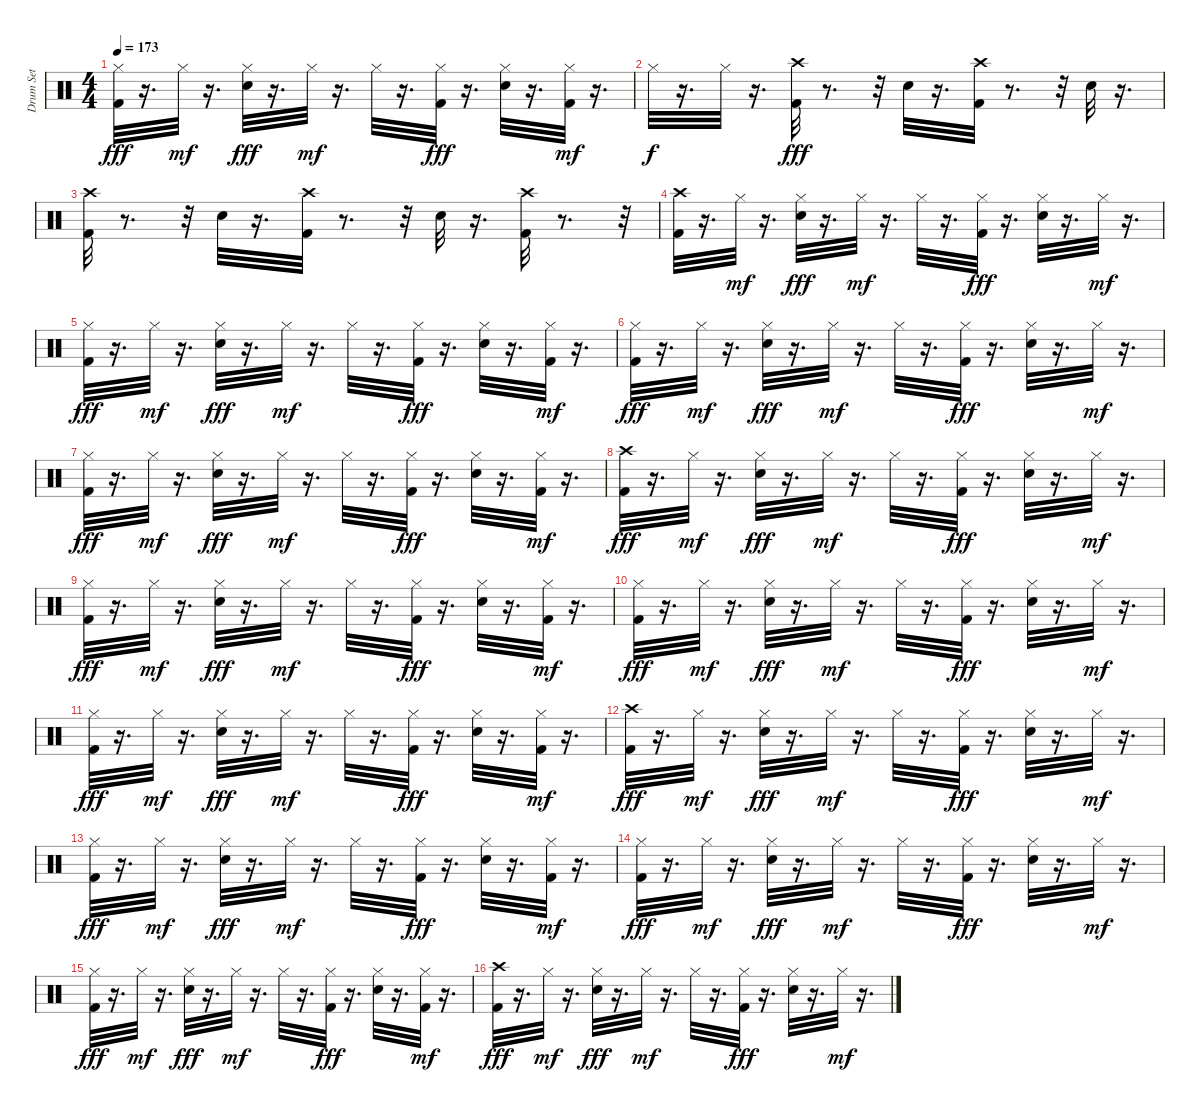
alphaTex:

\track ("Drum Set" "Drum Set") {instrument percussion}
\staff {score}
\articulation defaults
\ts (4 4)
\tempo 173
\clef neutral
\ks c
("Hi-Hat (closed)" "Kick (hit) 2").32{dy fff} r.16{d} "Hi-Hat (closed)".32{dy mf} r.16{d} ("Hi-Hat (closed)" "Electric Snare (hit)").32{dy fff} r.16{d} "Hi-Hat (closed)".32{dy mf} r.16{d} "Hi-Hat (closed)".32 r.16{d} ("Hi-Hat (closed)" "Kick (hit) 2").32{dy fff} r.16{d} ("Hi-Hat (closed)" "Electric Snare (hit)").32 r.16{d} ("Kick (hit) 2" "Hi-Hat (closed)").32{dy mf} r.16{d} |
"Hi-Hat (closed)".32{dy f} r.16{d} "Hi-Hat (closed)".32 r.16{d} ("Crash high (hit)" "Kick (hit) 2").32{dy fff} r.8{d} r.32 "Electric Snare (hit)".32 r.16{d} ("Crash high (hit)" "Kick (hit) 2").32 r.8{d} r.32 "Electric Snare (hit)".32 r.16{d} |
("Crash high (hit)" "Kick (hit) 2").32 r.8{d} r.32 "Electric Snare (hit)".32 r.16{d} ("Crash high (hit)" "Kick (hit) 2").32 r.8{d} r.32 "Electric Snare (hit)".32 r.16{d} ("Crash high (hit)" "Kick (hit) 2").32 r.8{d} r.32 |
("Crash high (hit)" "Kick (hit) 2").32 r.16{d} "Hi-Hat (closed)".32{dy mf} r.16{d} ("Hi-Hat (closed)" "Electric Snare (hit)").32{dy fff} r.16{d} "Hi-Hat (closed)".32{dy mf} r.16{d} "Hi-Hat (closed)".32 r.16{d} ("Hi-Hat (closed)" "Kick (hit) 2").32{dy fff} r.16{d} ("Hi-Hat (closed)" "Electric Snare (hit)").32 r.16{d} "Hi-Hat (closed)".32{dy mf} r.16{d} |
("Hi-Hat (closed)" "Kick (hit) 2").32{dy fff} r.16{d} "Hi-Hat (closed)".32{dy mf} r.16{d} ("Hi-Hat (closed)" "Electric Snare (hit)").32{dy fff} r.16{d} "Hi-Hat (closed)".32{dy mf} r.16{d} "Hi-Hat (closed)".32 r.16{d} ("Hi-Hat (closed)" "Kick (hit) 2").32{dy fff} r.16{d} ("Hi-Hat (closed)" "Electric Snare (hit)").32 r.16{d} ("Kick (hit) 2" "Hi-Hat (closed)").32{dy mf} r.16{d} |
("Hi-Hat (closed)" "Kick (hit) 2").32{dy fff} r.16{d} "Hi-Hat (closed)".32{dy mf} r.16{d} ("Hi-Hat (closed)" "Electric Snare (hit)").32{dy fff} r.16{d} "Hi-Hat (closed)".32{dy mf} r.16{d} "Hi-Hat (closed)".32 r.16{d} ("Hi-Hat (closed)" "Kick (hit) 2").32{dy fff} r.16{d} ("Hi-Hat (closed)" "Electric Snare (hit)").32 r.16{d} "Hi-Hat (closed)".32{dy mf} r.16{d} |
("Hi-Hat (closed)" "Kick (hit) 2").32{dy fff} r.16{d} "Hi-Hat (closed)".32{dy mf} r.16{d} ("Hi-Hat (closed)" "Electric Snare (hit)").32{dy fff} r.16{d} "Hi-Hat (closed)".32{dy mf} r.16{d} "Hi-Hat (closed)".32 r.16{d} ("Hi-Hat (closed)" "Kick (hit) 2").32{dy fff} r.16{d} ("Hi-Hat (closed)" "Electric Snare (hit)").32 r.16{d} ("Kick (hit) 2" "Hi-Hat (closed)").32{dy mf} r.16{d} |
("Crash high (hit)" "Kick (hit) 2").32{dy fff} r.16{d} "Hi-Hat (closed)".32{dy mf} r.16{d} ("Hi-Hat (closed)" "Electric Snare (hit)").32{dy fff} r.16{d} "Hi-Hat (closed)".32{dy mf} r.16{d} "Hi-Hat (closed)".32 r.16{d} ("Hi-Hat (closed)" "Kick (hit) 2").32{dy fff} r.16{d} ("Hi-Hat (closed)" "Electric Snare (hit)").32 r.16{d} "Hi-Hat (closed)".32{dy mf} r.16{d} |
("Hi-Hat (closed)" "Kick (hit) 2").32{dy fff} r.16{d} "Hi-Hat (closed)".32{dy mf} r.16{d} ("Hi-Hat (closed)" "Electric Snare (hit)").32{dy fff} r.16{d} "Hi-Hat (closed)".32{dy mf} r.16{d} "Hi-Hat (closed)".32 r.16{d} ("Hi-Hat (closed)" "Kick (hit) 2").32{dy fff} r.16{d} ("Hi-Hat (closed)" "Electric Snare (hit)").32 r.16{d} ("Kick (hit) 2" "Hi-Hat (closed)").32{dy mf} r.16{d} |
("Hi-Hat (closed)" "Kick (hit) 2").32{dy fff} r.16{d} "Hi-Hat (closed)".32{dy mf} r.16{d} ("Hi-Hat (closed)" "Electric Snare (hit)").32{dy fff} r.16{d} "Hi-Hat (closed)".32{dy mf} r.16{d} "Hi-Hat (closed)".32 r.16{d} ("Hi-Hat (closed)" "Kick (hit) 2").32{dy fff} r.16{d} ("Hi-Hat (closed)" "Electric Snare (hit)").32 r.16{d} "Hi-Hat (closed)".32{dy mf} r.16{d} |
("Hi-Hat (closed)" "Kick (hit) 2").32{dy fff} r.16{d} "Hi-Hat (closed)".32{dy mf} r.16{d} ("Hi-Hat (closed)" "Electric Snare (hit)").32{dy fff} r.16{d} "Hi-Hat (closed)".32{dy mf} r.16{d} "Hi-Hat (closed)".32 r.16{d} ("Hi-Hat (closed)" "Kick (hit) 2").32{dy fff} r.16{d} ("Hi-Hat (closed)" "Electric Snare (hit)").32 r.16{d} ("Kick (hit) 2" "Hi-Hat (closed)").32{dy mf} r.16{d} |
("Crash high (hit)" "Kick (hit) 2").32{dy fff} r.16{d} "Hi-Hat (closed)".32{dy mf} r.16{d} ("Hi-Hat (closed)" "Electric Snare (hit)").32{dy fff} r.16{d} "Hi-Hat (closed)".32{dy mf} r.16{d} "Hi-Hat (closed)".32 r.16{d} ("Hi-Hat (closed)" "Kick (hit) 2").32{dy fff} r.16{d} ("Hi-Hat (closed)" "Electric Snare (hit)").32 r.16{d} "Hi-Hat (closed)".32{dy mf} r.16{d} |
("Hi-Hat (closed)" "Kick (hit) 2").32{dy fff} r.16{d} "Hi-Hat (closed)".32{dy mf} r.16{d} ("Hi-Hat (closed)" "Electric Snare (hit)").32{dy fff} r.16{d} "Hi-Hat (closed)".32{dy mf} r.16{d} "Hi-Hat (closed)".32 r.16{d} ("Hi-Hat (closed)" "Kick (hit) 2").32{dy fff} r.16{d} ("Hi-Hat (closed)" "Electric Snare (hit)").32 r.16{d} ("Kick (hit) 2" "Hi-Hat (closed)").32{dy mf} r.16{d} |
("Hi-Hat (closed)" "Kick (hit) 2").32{dy fff} r.16{d} "Hi-Hat (closed)".32{dy mf} r.16{d} ("Hi-Hat (closed)" "Electric Snare (hit)").32{dy fff} r.16{d} "Hi-Hat (closed)".32{dy mf} r.16{d} "Hi-Hat (closed)".32 r.16{d} ("Hi-Hat (closed)" "Kick (hit) 2").32{dy fff} r.16{d} ("Hi-Hat (closed)" "Electric Snare (hit)").32 r.16{d} "Hi-Hat (closed)".32{dy mf} r.16{d} |
("Hi-Hat (closed)" "Kick (hit) 2").32{dy fff} r.16{d} "Hi-Hat (closed)".32{dy mf} r.16{d} ("Hi-Hat (closed)" "Electric Snare (hit)").32{dy fff} r.16{d} "Hi-Hat (closed)".32{dy mf} r.16{d} "Hi-Hat (closed)".32 r.16{d} ("Hi-Hat (closed)" "Kick (hit) 2").32{dy fff} r.16{d} ("Hi-Hat (closed)" "Electric Snare (hit)").32 r.16{d} ("Kick (hit) 2" "Hi-Hat (closed)").32{dy mf} r.16{d} |
("Crash high (hit)" "Kick (hit) 2").32{dy fff} r.16{d} "Hi-Hat (closed)".32{dy mf} r.16{d} ("Hi-Hat (closed)" "Electric Snare (hit)").32{dy fff} r.16{d} "Hi-Hat (closed)".32{dy mf} r.16{d} "Hi-Hat (closed)".32 r.16{d} ("Hi-Hat (closed)" "Kick (hit) 2").32{dy fff} r.16{d} ("Hi-Hat (closed)" "Electric Snare (hit)").32 r.16{d} "Hi-Hat (closed)".32{dy mf} r.16{d}
